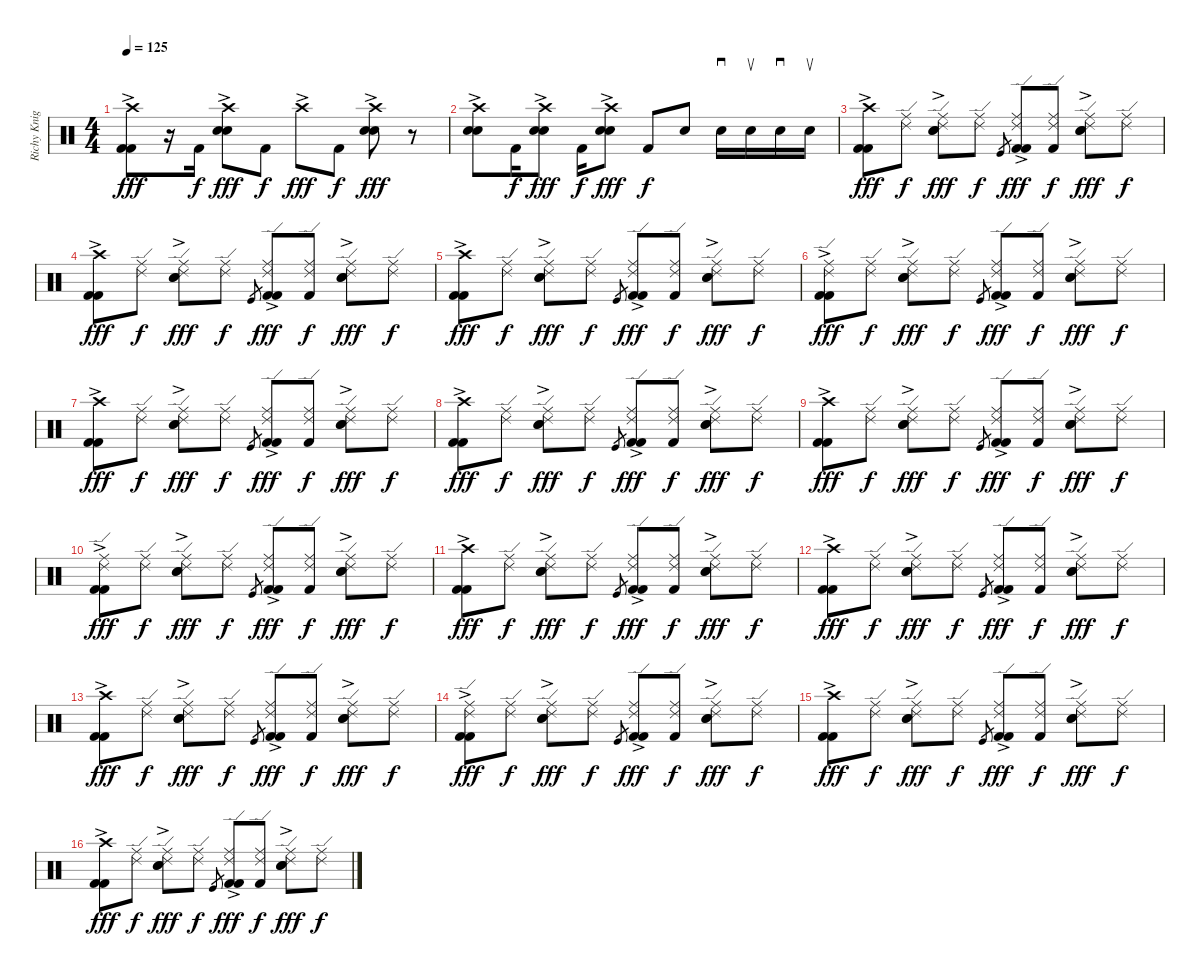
\track ("Richy Knight" "Richy Knig") {instrument percussion}
\staff {score}
\articulation defaults
\ts (4 4)
\tempo 125
\clef neutral
\ks c
("Crash high (hit)"{ac} "Kick (hit) 2"{ac} "Kick (hit) 2"{ac}).8{dy fff} r.16 "Kick (hit) 2".16{dy f} ("Crash high (hit)"{ac} "Electric Snare (hit)"{ac} "Electric Snare (hit)"{ac}).8{dy fff} "Kick (hit) 2".8{dy f} "Crash high (hit)"{ac}.8{dy fff} "Kick (hit) 2".8{dy f} ("Crash high (hit)"{ac} "Electric Snare (hit)"{ac} "Electric Snare (hit)"{ac}).8{dy fff} r.8 |
("Crash high (hit)"{ac} "Electric Snare (hit)"{ac} "Electric Snare (hit)"{ac}).8 "Kick (hit) 2".16{dy f} ("Crash high (hit)"{ac} "Electric Snare (hit)"{ac} "Electric Snare (hit)"{ac}).8{dy fff} "Kick (hit) 2".16{dy f} ("Crash high (hit)"{ac} "Electric Snare (hit)"{ac} "Electric Snare (hit)"{ac}).8{dy fff} "Kick (hit) 2".8{dy f} "Electric Snare (hit)".8 "Electric Snare (hit)".16{sd} "Electric Snare (hit)".16{su} "Electric Snare (hit)".16{sd} "Electric Snare (hit)".16{su} |
("Crash high (hit)"{ac} "Kick (hit) 2"{ac} "Kick (hit) 2"{ac}).8{dy fff} ("Ride (middle)" "Ride (edge) 2").8{dy f} ("Ride (middle)" "Ride (edge) 2" "Electric Snare (hit)"{ac} "Electric Snare (hit)"{ac}).8{dy fff} ("Ride (middle)" "Ride (edge) 2").8{dy f} "Kick (hit)".8{gr} ("Ride (middle)" "Ride (edge) 2" "Kick (hit) 2"{ac} "Kick (hit) 2"{ac}).8{dy fff} ("Ride (middle)" "Ride (edge) 2" "Kick (hit) 2").8{dy f} ("Ride (middle)" "Ride (edge) 2" "Electric Snare (hit)"{ac} "Electric Snare (hit)"{ac}).8{dy fff} ("Ride (middle)" "Ride (edge) 2").8{dy f} |
("Crash high (hit)"{ac} "Kick (hit) 2"{ac} "Kick (hit) 2"{ac}).8{dy fff} ("Ride (middle)" "Ride (edge) 2").8{dy f} ("Ride (middle)" "Ride (edge) 2" "Electric Snare (hit)"{ac} "Electric Snare (hit)"{ac}).8{dy fff} ("Ride (middle)" "Ride (edge) 2").8{dy f} "Kick (hit)".8{gr} ("Ride (middle)" "Ride (edge) 2" "Kick (hit) 2"{ac} "Kick (hit) 2"{ac}).8{dy fff} ("Ride (middle)" "Ride (edge) 2" "Kick (hit) 2").8{dy f} ("Ride (middle)" "Ride (edge) 2" "Electric Snare (hit)"{ac} "Electric Snare (hit)"{ac}).8{dy fff} ("Ride (middle)" "Ride (edge) 2").8{dy f} |
("Crash high (hit)"{ac} "Kick (hit) 2"{ac} "Kick (hit) 2"{ac}).8{dy fff} ("Ride (middle)" "Ride (edge) 2").8{dy f} ("Ride (middle)" "Ride (edge) 2" "Electric Snare (hit)"{ac} "Electric Snare (hit)"{ac}).8{dy fff} ("Ride (middle)" "Ride (edge) 2").8{dy f} "Kick (hit)".8{gr} ("Ride (middle)" "Ride (edge) 2" "Kick (hit) 2"{ac} "Kick (hit) 2"{ac}).8{dy fff} ("Ride (middle)" "Ride (edge) 2" "Kick (hit) 2").8{dy f} ("Ride (middle)" "Ride (edge) 2" "Electric Snare (hit)"{ac} "Electric Snare (hit)"{ac}).8{dy fff} ("Ride (middle)" "Ride (edge) 2").8{dy f} |
("Ride (middle)"{ac} "Ride (edge) 2"{ac} "Kick (hit) 2"{ac} "Kick (hit) 2"{ac}).8{dy fff} ("Ride (middle)" "Ride (edge) 2").8{dy f} ("Ride (middle)" "Ride (edge) 2" "Electric Snare (hit)"{ac} "Electric Snare (hit)"{ac}).8{dy fff} ("Ride (middle)" "Ride (edge) 2").8{dy f} "Kick (hit)".8{gr} ("Ride (middle)" "Ride (edge) 2" "Kick (hit) 2"{ac} "Kick (hit) 2"{ac}).8{dy fff} ("Ride (middle)" "Ride (edge) 2" "Kick (hit) 2").8{dy f} ("Ride (middle)" "Ride (edge) 2" "Electric Snare (hit)"{ac} "Electric Snare (hit)"{ac}).8{dy fff} ("Ride (middle)" "Ride (edge) 2").8{dy f} |
("Crash high (hit)"{ac} "Kick (hit) 2"{ac} "Kick (hit) 2"{ac}).8{dy fff} ("Ride (middle)" "Ride (edge) 2").8{dy f} ("Ride (middle)" "Ride (edge) 2" "Electric Snare (hit)"{ac} "Electric Snare (hit)"{ac}).8{dy fff} ("Ride (middle)" "Ride (edge) 2").8{dy f} "Kick (hit)".8{gr} ("Ride (middle)" "Ride (edge) 2" "Kick (hit) 2"{ac} "Kick (hit) 2"{ac}).8{dy fff} ("Ride (middle)" "Ride (edge) 2" "Kick (hit) 2").8{dy f} ("Ride (middle)" "Ride (edge) 2" "Electric Snare (hit)"{ac} "Electric Snare (hit)"{ac}).8{dy fff} ("Ride (middle)" "Ride (edge) 2").8{dy f} |
("Crash high (hit)"{ac} "Kick (hit) 2"{ac} "Kick (hit) 2"{ac}).8{dy fff} ("Ride (middle)" "Ride (edge) 2").8{dy f} ("Ride (middle)" "Ride (edge) 2" "Electric Snare (hit)"{ac} "Electric Snare (hit)"{ac}).8{dy fff} ("Ride (middle)" "Ride (edge) 2").8{dy f} "Kick (hit)".8{gr} ("Ride (middle)" "Ride (edge) 2" "Kick (hit) 2"{ac} "Kick (hit) 2"{ac}).8{dy fff} ("Ride (middle)" "Ride (edge) 2" "Kick (hit) 2").8{dy f} ("Ride (middle)" "Ride (edge) 2" "Electric Snare (hit)"{ac} "Electric Snare (hit)"{ac}).8{dy fff} ("Ride (middle)" "Ride (edge) 2").8{dy f} |
("Crash high (hit)"{ac} "Kick (hit) 2"{ac} "Kick (hit) 2"{ac}).8{dy fff} ("Ride (middle)" "Ride (edge) 2").8{dy f} ("Ride (middle)" "Ride (edge) 2" "Electric Snare (hit)"{ac} "Electric Snare (hit)"{ac}).8{dy fff} ("Ride (middle)" "Ride (edge) 2").8{dy f} "Kick (hit)".8{gr} ("Ride (middle)" "Ride (edge) 2" "Kick (hit) 2"{ac} "Kick (hit) 2"{ac}).8{dy fff} ("Ride (middle)" "Ride (edge) 2" "Kick (hit) 2").8{dy f} ("Ride (middle)" "Ride (edge) 2" "Electric Snare (hit)"{ac} "Electric Snare (hit)"{ac}).8{dy fff} ("Ride (middle)" "Ride (edge) 2").8{dy f} |
("Ride (middle)"{ac} "Ride (edge) 2"{ac} "Kick (hit) 2"{ac} "Kick (hit) 2"{ac}).8{dy fff} ("Ride (middle)" "Ride (edge) 2").8{dy f} ("Ride (middle)" "Ride (edge) 2" "Electric Snare (hit)"{ac} "Electric Snare (hit)"{ac}).8{dy fff} ("Ride (middle)" "Ride (edge) 2").8{dy f} "Kick (hit)".8{gr} ("Ride (middle)" "Ride (edge) 2" "Kick (hit) 2"{ac} "Kick (hit) 2"{ac}).8{dy fff} ("Ride (middle)" "Ride (edge) 2" "Kick (hit) 2").8{dy f} ("Ride (middle)" "Ride (edge) 2" "Electric Snare (hit)"{ac} "Electric Snare (hit)"{ac}).8{dy fff} ("Ride (middle)" "Ride (edge) 2").8{dy f} |
("Crash high (hit)"{ac} "Kick (hit) 2"{ac} "Kick (hit) 2"{ac}).8{dy fff} ("Ride (middle)" "Ride (edge) 2").8{dy f} ("Ride (middle)" "Ride (edge) 2" "Electric Snare (hit)"{ac} "Electric Snare (hit)"{ac}).8{dy fff} ("Ride (middle)" "Ride (edge) 2").8{dy f} "Kick (hit)".8{gr} ("Ride (middle)" "Ride (edge) 2" "Kick (hit) 2"{ac} "Kick (hit) 2"{ac}).8{dy fff} ("Ride (middle)" "Ride (edge) 2" "Kick (hit) 2").8{dy f} ("Ride (middle)" "Ride (edge) 2" "Electric Snare (hit)"{ac} "Electric Snare (hit)"{ac}).8{dy fff} ("Ride (middle)" "Ride (edge) 2").8{dy f} |
("Crash high (hit)"{ac} "Kick (hit) 2"{ac} "Kick (hit) 2"{ac}).8{dy fff} ("Ride (middle)" "Ride (edge) 2").8{dy f} ("Ride (middle)" "Ride (edge) 2" "Electric Snare (hit)"{ac} "Electric Snare (hit)"{ac}).8{dy fff} ("Ride (middle)" "Ride (edge) 2").8{dy f} "Kick (hit)".8{gr} ("Ride (middle)" "Ride (edge) 2" "Kick (hit) 2"{ac} "Kick (hit) 2"{ac}).8{dy fff} ("Ride (middle)" "Ride (edge) 2" "Kick (hit) 2").8{dy f} ("Ride (middle)" "Ride (edge) 2" "Electric Snare (hit)"{ac} "Electric Snare (hit)"{ac}).8{dy fff} ("Ride (middle)" "Ride (edge) 2").8{dy f} |
("Crash high (hit)"{ac} "Kick (hit) 2"{ac} "Kick (hit) 2"{ac}).8{dy fff} ("Ride (middle)" "Ride (edge) 2").8{dy f} ("Ride (middle)" "Ride (edge) 2" "Electric Snare (hit)"{ac} "Electric Snare (hit)"{ac}).8{dy fff} ("Ride (middle)" "Ride (edge) 2").8{dy f} "Kick (hit)".8{gr} ("Ride (middle)" "Ride (edge) 2" "Kick (hit) 2"{ac} "Kick (hit) 2"{ac}).8{dy fff} ("Ride (middle)" "Ride (edge) 2" "Kick (hit) 2").8{dy f} ("Ride (middle)" "Ride (edge) 2" "Electric Snare (hit)"{ac} "Electric Snare (hit)"{ac}).8{dy fff} ("Ride (middle)" "Ride (edge) 2").8{dy f} |
("Ride (middle)"{ac} "Ride (edge) 2"{ac} "Kick (hit) 2"{ac} "Kick (hit) 2"{ac}).8{dy fff} ("Ride (middle)" "Ride (edge) 2").8{dy f} ("Ride (middle)" "Ride (edge) 2" "Electric Snare (hit)"{ac} "Electric Snare (hit)"{ac}).8{dy fff} ("Ride (middle)" "Ride (edge) 2").8{dy f} "Kick (hit)".8{gr} ("Ride (middle)" "Ride (edge) 2" "Kick (hit) 2"{ac} "Kick (hit) 2"{ac}).8{dy fff} ("Ride (middle)" "Ride (edge) 2" "Kick (hit) 2").8{dy f} ("Ride (middle)" "Ride (edge) 2" "Electric Snare (hit)"{ac} "Electric Snare (hit)"{ac}).8{dy fff} ("Ride (middle)" "Ride (edge) 2").8{dy f} |
("Crash high (hit)"{ac} "Kick (hit) 2"{ac} "Kick (hit) 2"{ac}).8{dy fff} ("Ride (middle)" "Ride (edge) 2").8{dy f} ("Ride (middle)" "Ride (edge) 2" "Electric Snare (hit)"{ac} "Electric Snare (hit)"{ac}).8{dy fff} ("Ride (middle)" "Ride (edge) 2").8{dy f} "Kick (hit)".8{gr} ("Ride (middle)" "Ride (edge) 2" "Kick (hit) 2"{ac} "Kick (hit) 2"{ac}).8{dy fff} ("Ride (middle)" "Ride (edge) 2" "Kick (hit) 2").8{dy f} ("Ride (middle)" "Ride (edge) 2" "Electric Snare (hit)"{ac} "Electric Snare (hit)"{ac}).8{dy fff} ("Ride (middle)" "Ride (edge) 2").8{dy f} |
("Crash high (hit)"{ac} "Kick (hit) 2"{ac} "Kick (hit) 2"{ac}).8{dy fff} ("Ride (middle)" "Ride (edge) 2").8{dy f} ("Ride (middle)" "Ride (edge) 2" "Electric Snare (hit)"{ac} "Electric Snare (hit)"{ac}).8{dy fff} ("Ride (middle)" "Ride (edge) 2").8{dy f} "Kick (hit)".8{gr} ("Ride (middle)" "Ride (edge) 2" "Kick (hit) 2"{ac} "Kick (hit) 2"{ac}).8{dy fff} ("Ride (middle)" "Ride (edge) 2" "Kick (hit) 2").8{dy f} ("Ride (middle)" "Ride (edge) 2" "Electric Snare (hit)"{ac} "Electric Snare (hit)"{ac}).8{dy fff} ("Ride (middle)" "Ride (edge) 2").8{dy f}
